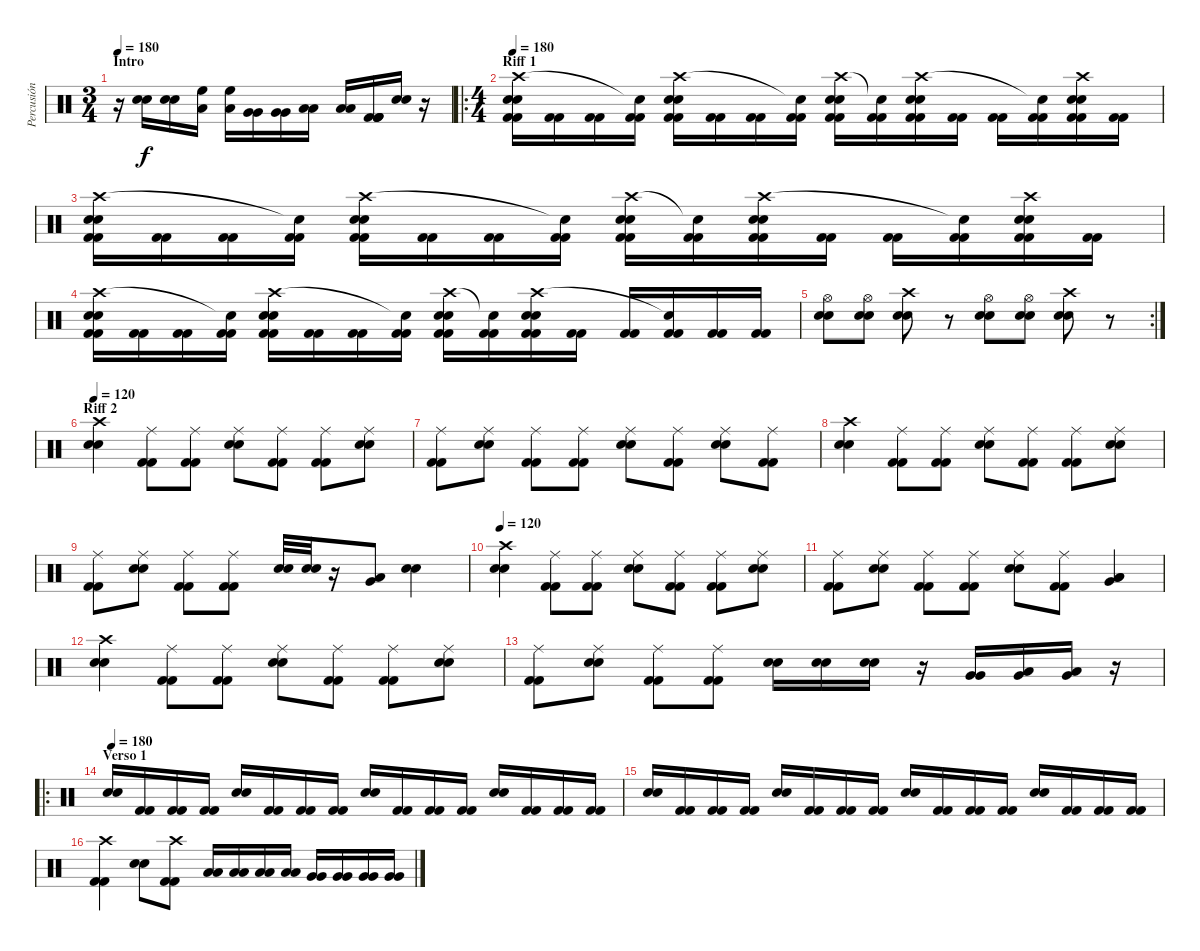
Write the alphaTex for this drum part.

\track ("Percusión" "Percusión") {instrument percussion}
\staff {score}
\articulation defaults
\ts (3 4)
\section ("" "Intro")
\tempo 180
\tempo 120
\tempo 180
\clef neutral
\ks c
r.16{dy f} ("Snare (hit) 2" "Snare (hit) 2").16 ("Snare (hit) 2" "Snare (hit) 2").16 ("High Floor Tom (hit)" "Low Tom (hit)").16 ("High Floor Tom (hit)" "Low Tom (hit)").16 ("Very Low Tom (hit)" "Very Low Tom (hit)").16 ("Very Low Tom (hit)" "Very Low Tom (hit)").16 ("Low Tom (hit)" "Low Tom (hit)").16 ("Low Tom (hit)" "Low Tom (hit)").16 ("Kick (hit) 2" "Kick (hit) 2" "Kick (hit) 2" "Kick (hit) 2").16 ("Snare (hit) 2" "Snare (hit) 2").16 r.16 |
\ro
\ts (4 4)
\section ("" "Riff 1")
\tempo 180
("Kick (hit) 2" "Kick (hit) 2" "Crash high (hit)" "Snare (hit) 2" "Snare (hit) 2").16 ("Kick (hit) 2" "Kick (hit) 2").16 ("Kick (hit) 2" "Kick (hit) 2").16 ("Kick (hit) 2" "Kick (hit) 2" "Snare (hit)"{t}).16 ("Kick (hit) 2" "Kick (hit) 2" "Crash high (hit)" "Snare (hit) 2" "Snare (hit) 2").16 ("Kick (hit) 2" "Kick (hit) 2").16 ("Kick (hit) 2" "Kick (hit) 2").16 ("Kick (hit) 2" "Kick (hit) 2" "Snare (hit)"{t}).16 ("Kick (hit) 2" "Kick (hit) 2" "Crash high (hit)" "Snare (hit) 2" "Snare (hit) 2").16 ("Kick (hit) 2" "Kick (hit) 2" "Snare (hit)"{t}).16 ("Kick (hit) 2" "Kick (hit) 2" "Crash high (hit)" "Snare (hit) 2" "Snare (hit) 2").16 ("Kick (hit) 2" "Kick (hit) 2").16 ("Kick (hit) 2" "Kick (hit) 2").16 ("Kick (hit) 2" "Kick (hit) 2" "Snare (hit)"{t}).16 ("Kick (hit) 2" "Kick (hit) 2" "Crash high (hit)" "Snare (hit) 2" "Snare (hit) 2").16 ("Kick (hit) 2" "Kick (hit) 2").16 |
("Kick (hit) 2" "Kick (hit) 2" "Crash high (hit)" "Snare (hit) 2" "Snare (hit) 2").16 ("Kick (hit) 2" "Kick (hit) 2").16 ("Kick (hit) 2" "Kick (hit) 2").16 ("Kick (hit) 2" "Kick (hit) 2" "Snare (hit)"{t}).16 ("Kick (hit) 2" "Kick (hit) 2" "Crash high (hit)" "Snare (hit) 2" "Snare (hit) 2").16 ("Kick (hit) 2" "Kick (hit) 2").16 ("Kick (hit) 2" "Kick (hit) 2").16 ("Kick (hit) 2" "Kick (hit) 2" "Snare (hit)"{t}).16 ("Kick (hit) 2" "Kick (hit) 2" "Crash high (hit)" "Snare (hit) 2" "Snare (hit) 2").16 ("Kick (hit) 2" "Kick (hit) 2" "Snare (hit)"{t}).16 ("Kick (hit) 2" "Kick (hit) 2" "Crash high (hit)" "Snare (hit) 2" "Snare (hit) 2").16 ("Kick (hit) 2" "Kick (hit) 2").16 ("Kick (hit) 2" "Kick (hit) 2").16 ("Kick (hit) 2" "Kick (hit) 2" "Snare (hit)"{t}).16 ("Kick (hit) 2" "Kick (hit) 2" "Crash high (hit)" "Snare (hit) 2" "Snare (hit) 2").16 ("Kick (hit) 2" "Kick (hit) 2").16 |
("Kick (hit) 2" "Kick (hit) 2" "Crash high (hit)" "Snare (hit) 2" "Snare (hit) 2").16 ("Kick (hit) 2" "Kick (hit) 2").16 ("Kick (hit) 2" "Kick (hit) 2").16 ("Kick (hit) 2" "Kick (hit) 2" "Snare (hit)"{t}).16 ("Kick (hit) 2" "Kick (hit) 2" "Crash high (hit)" "Snare (hit) 2" "Snare (hit) 2").16 ("Kick (hit) 2" "Kick (hit) 2").16 ("Kick (hit) 2" "Kick (hit) 2").16 ("Kick (hit) 2" "Kick (hit) 2" "Snare (hit)"{t}).16 ("Kick (hit) 2" "Kick (hit) 2" "Crash high (hit)" "Snare (hit) 2" "Snare (hit) 2").16 ("Kick (hit) 2" "Kick (hit) 2" "Snare (hit)"{t}).16 ("Kick (hit) 2" "Kick (hit) 2" "Crash high (hit)" "Snare (hit) 2" "Snare (hit) 2").16 ("Kick (hit) 2" "Kick (hit) 2").16 ("Kick (hit) 2" "Kick (hit) 2").16 ("Kick (hit) 2" "Kick (hit) 2" "Snare (hit)"{t}).16 ("Kick (hit) 2" "Kick (hit) 2").16 ("Kick (hit) 2" "Kick (hit) 2").16 |
\rc 2
("Hi-Hat (open)" "Snare (hit) 2" "Snare (hit) 2").8 ("Hi-Hat (open)" "Snare (hit) 2" "Snare (hit) 2").8 ("Crash high (hit)" "Snare (hit) 2" "Snare (hit) 2").8 r.8 ("Hi-Hat (open)" "Snare (hit) 2" "Snare (hit) 2").8 ("Hi-Hat (open)" "Snare (hit) 2" "Snare (hit) 2").8 ("Crash high (hit)" "Snare (hit) 2" "Snare (hit) 2").8 r.8 |
\section ("" "Riff 2")
\tempo 120
("Crash high (hit)" "Snare (hit) 2" "Snare (hit) 2").4 ("Ride (middle)" "Kick (hit) 2" "Kick (hit) 2").8 ("Ride (middle)" "Kick (hit) 2" "Kick (hit) 2").8 ("Ride (middle)" "Snare (hit) 2" "Snare (hit) 2").8 ("Ride (middle)" "Kick (hit) 2" "Kick (hit) 2").8 ("Ride (middle)" "Kick (hit) 2" "Kick (hit) 2").8 ("Ride (middle)" "Snare (hit) 2" "Snare (hit) 2").8 |
("Ride (middle)" "Kick (hit) 2" "Kick (hit) 2").8 ("Ride (middle)" "Snare (hit) 2" "Snare (hit) 2").8 ("Ride (middle)" "Kick (hit) 2" "Kick (hit) 2").8 ("Ride (middle)" "Kick (hit) 2" "Kick (hit) 2").8 ("Ride (middle)" "Snare (hit) 2" "Snare (hit) 2").8 ("Ride (middle)" "Kick (hit) 2" "Kick (hit) 2").8 ("Ride (middle)" "Snare (hit) 2" "Snare (hit) 2").8 ("Ride (middle)" "Kick (hit) 2" "Kick (hit) 2").8 |
("Crash high (hit)" "Snare (hit) 2" "Snare (hit) 2").4 ("Ride (middle)" "Kick (hit) 2" "Kick (hit) 2").8 ("Ride (middle)" "Kick (hit) 2" "Kick (hit) 2").8 ("Ride (middle)" "Snare (hit) 2" "Snare (hit) 2").8 ("Ride (middle)" "Kick (hit) 2" "Kick (hit) 2").8 ("Ride (middle)" "Kick (hit) 2" "Kick (hit) 2").8 ("Ride (middle)" "Snare (hit) 2" "Snare (hit) 2").8 |
("Ride (middle)" "Kick (hit) 2" "Kick (hit) 2").8 ("Ride (middle)" "Snare (hit) 2" "Snare (hit) 2").8 ("Ride (middle)" "Kick (hit) 2" "Kick (hit) 2").8 ("Ride (middle)" "Kick (hit) 2" "Kick (hit) 2").8 ("Electric Snare (hit)" "Electric Snare (hit)").32 ("Electric Snare (hit)" "Electric Snare (hit)").32 r.16 ("Very Low Tom (hit)" "Low Floor Tom (hit)").8 ("Snare (hit) 2" "Snare (hit) 2").4 |
\tempo 120
("Crash high (hit)" "Snare (hit) 2" "Snare (hit) 2").4 ("Ride (middle)" "Kick (hit) 2" "Kick (hit) 2").8 ("Ride (middle)" "Kick (hit) 2" "Kick (hit) 2").8 ("Ride (middle)" "Snare (hit) 2" "Snare (hit) 2").8 ("Ride (middle)" "Kick (hit) 2" "Kick (hit) 2").8 ("Ride (middle)" "Kick (hit) 2" "Kick (hit) 2").8 ("Ride (middle)" "Snare (hit) 2" "Snare (hit) 2").8 |
("Ride (middle)" "Kick (hit) 2" "Kick (hit) 2").8 ("Ride (middle)" "Snare (hit) 2" "Snare (hit) 2").8 ("Ride (middle)" "Kick (hit) 2" "Kick (hit) 2").8 ("Ride (middle)" "Kick (hit) 2" "Kick (hit) 2").8 ("Ride (middle)" "Snare (hit) 2" "Snare (hit) 2").8 ("Ride (middle)" "Kick (hit) 2" "Kick (hit) 2").8 ("Low Tom (hit)" "Very Low Tom (hit)" "Low Floor Tom (hit)").4 |
("Crash high (hit)" "Snare (hit) 2" "Snare (hit) 2").4 ("Ride (middle)" "Kick (hit) 2" "Kick (hit) 2").8 ("Ride (middle)" "Kick (hit) 2" "Kick (hit) 2").8 ("Ride (middle)" "Snare (hit) 2" "Snare (hit) 2").8 ("Ride (middle)" "Kick (hit) 2" "Kick (hit) 2").8 ("Ride (middle)" "Kick (hit) 2" "Kick (hit) 2").8 ("Ride (middle)" "Snare (hit) 2" "Snare (hit) 2").8 |
("Ride (middle)" "Kick (hit) 2" "Kick (hit) 2").8 ("Ride (middle)" "Snare (hit) 2" "Snare (hit) 2").8 ("Ride (middle)" "Kick (hit) 2" "Kick (hit) 2").8 ("Ride (middle)" "Kick (hit) 2" "Kick (hit) 2").8 ("Snare (hit) 2" "Snare (hit) 2").16 ("Snare (hit) 2" "Snare (hit) 2").16 ("Snare (hit) 2" "Snare (hit) 2").16 r.16 ("Very Low Tom (hit)" "Very Low Tom (hit)").16 ("Very Low Tom (hit)" "Low Floor Tom (hit)").16 ("Very Low Tom (hit)" "Low Floor Tom (hit)").16 r.16 |
\ro
\section ("" "Verso 1")
\tempo 180
("Snare (hit) 2" "Snare (hit) 2").16 ("Kick (hit) 2" "Kick (hit) 2").16 ("Kick (hit) 2" "Kick (hit) 2").16 ("Kick (hit) 2" "Kick (hit) 2").16 ("Snare (hit) 2" "Snare (hit) 2").16 ("Kick (hit) 2" "Kick (hit) 2").16 ("Kick (hit) 2" "Kick (hit) 2").16 ("Kick (hit) 2" "Kick (hit) 2").16 ("Snare (hit) 2" "Snare (hit) 2").16 ("Kick (hit) 2" "Kick (hit) 2").16 ("Kick (hit) 2" "Kick (hit) 2").16 ("Kick (hit) 2" "Kick (hit) 2").16 ("Snare (hit) 2" "Snare (hit) 2").16 ("Kick (hit) 2" "Kick (hit) 2").16 ("Kick (hit) 2" "Kick (hit) 2").16 ("Kick (hit) 2" "Kick (hit) 2").16 |
("Snare (hit) 2" "Snare (hit) 2").16 ("Kick (hit) 2" "Kick (hit) 2").16 ("Kick (hit) 2" "Kick (hit) 2").16 ("Kick (hit) 2" "Kick (hit) 2").16 ("Snare (hit) 2" "Snare (hit) 2").16 ("Kick (hit) 2" "Kick (hit) 2").16 ("Kick (hit) 2" "Kick (hit) 2").16 ("Kick (hit) 2" "Kick (hit) 2").16 ("Snare (hit) 2" "Snare (hit) 2").16 ("Kick (hit) 2" "Kick (hit) 2").16 ("Kick (hit) 2" "Kick (hit) 2").16 ("Kick (hit) 2" "Kick (hit) 2").16 ("Snare (hit) 2" "Snare (hit) 2").16 ("Kick (hit) 2" "Kick (hit) 2").16 ("Kick (hit) 2" "Kick (hit) 2").16 ("Kick (hit) 2" "Kick (hit) 2").16 |
("Crash high (hit)" "Kick (hit) 2" "Kick (hit) 2").4 ("Snare (hit) 2" "Snare (hit) 2").8 ("Crash high (hit)" "Kick (hit) 2" "Kick (hit) 2").8 ("Low Tom (hit)" "Low Tom (hit)").16 ("Low Tom (hit)" "Low Tom (hit)").16 ("Low Tom (hit)" "Low Tom (hit)").16 ("Low Tom (hit)" "Low Tom (hit)").16 ("Very Low Tom (hit)" "Very Low Tom (hit)").16 ("Very Low Tom (hit)" "Very Low Tom (hit)").16 ("Very Low Tom (hit)" "Very Low Tom (hit)").16 ("Very Low Tom (hit)" "Very Low Tom (hit)").16
